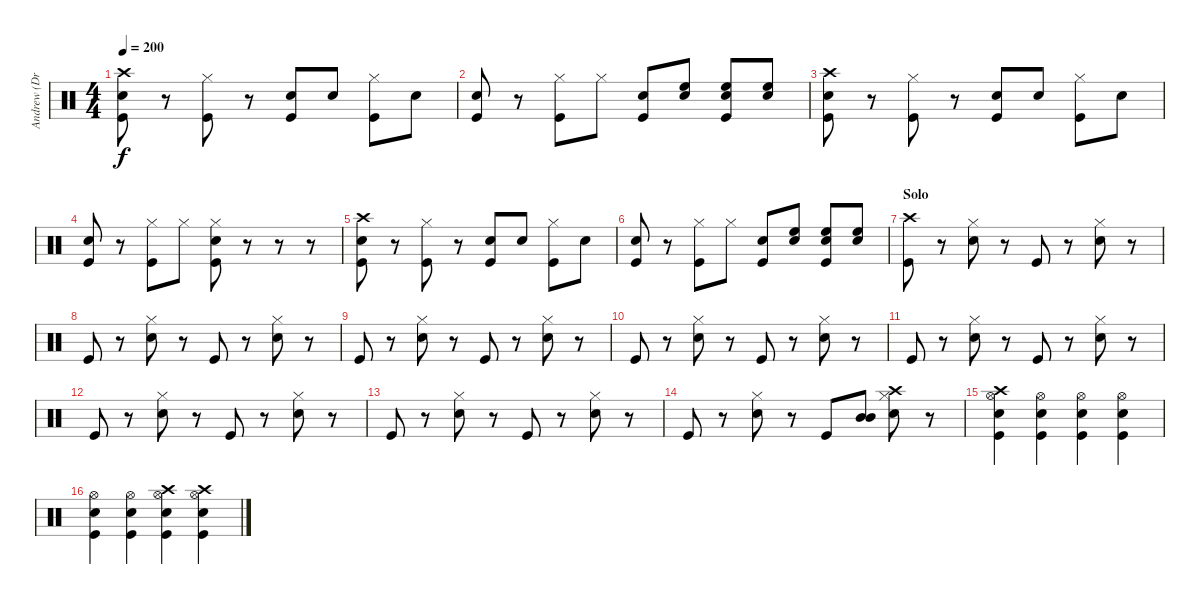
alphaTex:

\track ("Andrew (Drums)" "Andrew (Dr") {instrument percussion}
\staff {score}
\articulation defaults
\ts (4 4)
\tempo 200
\clef neutral
\ks c
("Kick (hit)" "Snare (hit) 2" "Crash high (hit)").8{dy f} r.8 ("Kick (hit)" "Hi-Hat (closed)").8 r.8 ("Kick (hit)" "Snare (hit) 2").8 "Snare (hit) 2".8 ("Kick (hit)" "Hi-Hat (closed)").8 "Snare (hit) 2".8 |
("Kick (hit)" "Snare (hit) 2").8 r.8 ("Kick (hit)" "Hi-Hat (closed)").8 "Hi-Hat (closed)".8 ("Kick (hit)" "Snare (hit) 2").8 ("Snare (hit) 2" "High Floor Tom (hit)").8 ("Kick (hit)" "Snare (hit) 2" "High Floor Tom (hit)").8 ("Snare (hit) 2" "High Floor Tom (hit)").8 |
("Kick (hit)" "Snare (hit) 2" "Crash high (hit)").8 r.8 ("Kick (hit)" "Hi-Hat (closed)").8 r.8 ("Kick (hit)" "Snare (hit) 2").8 "Snare (hit) 2".8 ("Kick (hit)" "Hi-Hat (closed)").8 "Snare (hit) 2".8 |
("Kick (hit)" "Snare (hit) 2").8 r.8 ("Kick (hit)" "Hi-Hat (closed)").8 "Hi-Hat (closed)".8 ("Kick (hit)" "Snare (hit) 2" "Hi-Hat (closed)").8 r.8 r.8 r.8 |
("Kick (hit)" "Snare (hit) 2" "Crash high (hit)").8 r.8 ("Kick (hit)" "Hi-Hat (closed)").8 r.8 ("Kick (hit)" "Snare (hit) 2").8 "Snare (hit) 2".8 ("Kick (hit)" "Hi-Hat (closed)").8 "Snare (hit) 2".8 |
("Kick (hit)" "Snare (hit) 2").8 r.8 ("Kick (hit)" "Hi-Hat (closed)").8 "Hi-Hat (closed)".8 ("Kick (hit)" "Snare (hit) 2").8 ("Snare (hit) 2" "High Floor Tom (hit)").8 ("Kick (hit)" "Snare (hit) 2" "High Floor Tom (hit)").8 ("Snare (hit) 2" "High Floor Tom (hit)").8 |
\section ("" "Solo")
("Kick (hit)" "Crash high (hit)").8 r.8 ("Snare (hit) 2" "Hi-Hat (closed)").8 r.8 "Kick (hit)".8 r.8 ("Snare (hit) 2" "Hi-Hat (closed)").8 r.8 |
"Kick (hit)".8 r.8 ("Snare (hit) 2" "Hi-Hat (closed)").8 r.8 "Kick (hit)".8 r.8 ("Snare (hit) 2" "Hi-Hat (closed)").8 r.8 |
"Kick (hit)".8 r.8 ("Snare (hit) 2" "Hi-Hat (closed)").8 r.8 "Kick (hit)".8 r.8 ("Snare (hit) 2" "Hi-Hat (closed)").8 r.8 |
"Kick (hit)".8 r.8 ("Snare (hit) 2" "Hi-Hat (closed)").8 r.8 "Kick (hit)".8 r.8 ("Snare (hit) 2" "Hi-Hat (closed)").8 r.8 |
"Kick (hit)".8 r.8 ("Snare (hit) 2" "Hi-Hat (closed)").8 r.8 "Kick (hit)".8 r.8 ("Snare (hit) 2" "Hi-Hat (closed)").8 r.8 |
"Kick (hit)".8 r.8 ("Snare (hit) 2" "Hi-Hat (closed)").8 r.8 "Kick (hit)".8 r.8 ("Snare (hit) 2" "Hi-Hat (closed)").8 r.8 |
"Kick (hit)".8 r.8 ("Snare (hit) 2" "Hi-Hat (closed)").8 r.8 "Kick (hit)".8 r.8 ("Snare (hit) 2" "Hi-Hat (closed)").8 r.8 |
"Kick (hit)".8 r.8 ("Snare (hit) 2" "Hi-Hat (closed)").8 r.8 "Kick (hit)".8 ("Mid Tom (hit)" "Mid Tom (hit)").8 ("Snare (hit) 2" "Hi-Hat (closed)" "Crash high (hit)").8 r.8 |
("Kick (hit)" "Snare (hit) 2" "Hi-Hat (open)" "Crash high (hit)").4 ("Kick (hit)" "Snare (hit) 2" "Hi-Hat (open)").4 ("Kick (hit)" "Snare (hit) 2" "Hi-Hat (open)").4 ("Kick (hit)" "Snare (hit) 2" "Hi-Hat (open)").4 |
("Kick (hit)" "Snare (hit) 2" "Hi-Hat (open)").4 ("Kick (hit)" "Snare (hit) 2" "Hi-Hat (open)").4 ("Kick (hit)" "Snare (hit) 2" "Hi-Hat (open)" "Crash high (hit)").4 ("Kick (hit)" "Snare (hit) 2" "Hi-Hat (open)" "Crash high (hit)").4
